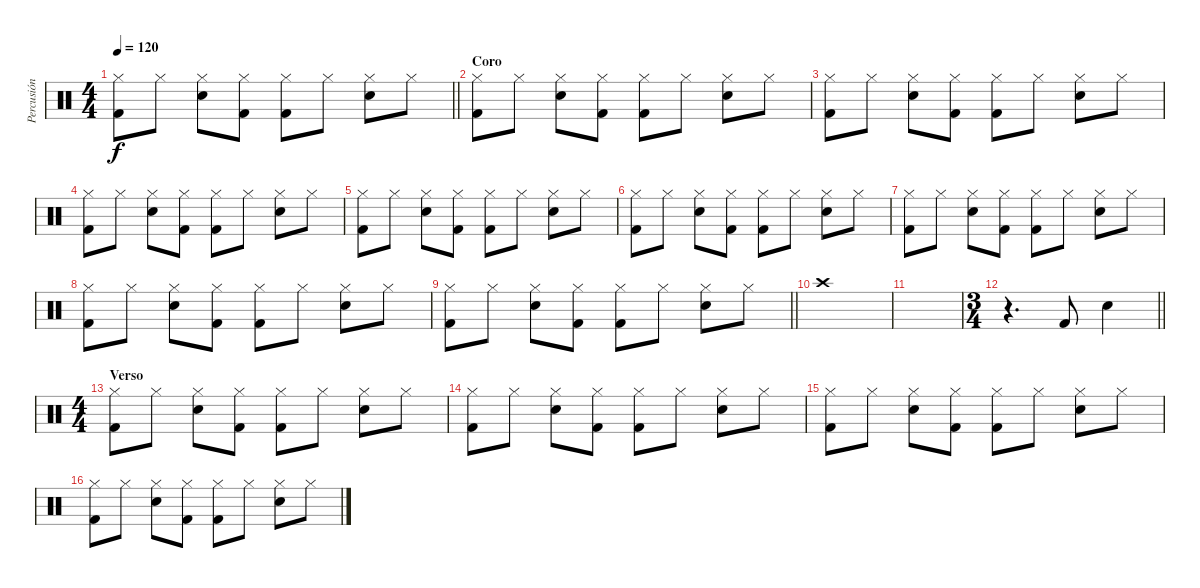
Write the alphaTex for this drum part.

\track ("Percusión" "Percusión") {instrument percussion}
\staff {score}
\articulation defaults
\ts (4 4)
\tempo 120
\clef neutral
\barLineRight lightlight
\ks c
("Hi-Hat (closed)" "Kick (hit) 2").8{dy f} "Hi-Hat (closed)".8 ("Hi-Hat (closed)" "Snare (hit) 2").8 ("Hi-Hat (closed)" "Kick (hit) 2").8 ("Hi-Hat (closed)" "Kick (hit) 2").8 "Hi-Hat (closed)".8 ("Hi-Hat (closed)" "Snare (hit) 2").8 "Hi-Hat (closed)".8 |
\section ("" "Coro")
("Hi-Hat (closed)" "Kick (hit) 2").8 "Hi-Hat (closed)".8 ("Hi-Hat (closed)" "Snare (hit) 2").8 ("Hi-Hat (closed)" "Kick (hit) 2").8 ("Hi-Hat (closed)" "Kick (hit) 2").8 "Hi-Hat (closed)".8 ("Hi-Hat (closed)" "Snare (hit) 2").8 "Hi-Hat (closed)".8 |
("Hi-Hat (closed)" "Kick (hit) 2").8 "Hi-Hat (closed)".8 ("Hi-Hat (closed)" "Snare (hit) 2").8 ("Hi-Hat (closed)" "Kick (hit) 2").8 ("Hi-Hat (closed)" "Kick (hit) 2").8 "Hi-Hat (closed)".8 ("Hi-Hat (closed)" "Snare (hit) 2").8 "Hi-Hat (closed)".8 |
("Hi-Hat (closed)" "Kick (hit) 2").8 "Hi-Hat (closed)".8 ("Hi-Hat (closed)" "Snare (hit) 2").8 ("Hi-Hat (closed)" "Kick (hit) 2").8 ("Hi-Hat (closed)" "Kick (hit) 2").8 "Hi-Hat (closed)".8 ("Hi-Hat (closed)" "Snare (hit) 2").8 "Hi-Hat (closed)".8 |
("Hi-Hat (closed)" "Kick (hit) 2").8 "Hi-Hat (closed)".8 ("Hi-Hat (closed)" "Snare (hit) 2").8 ("Hi-Hat (closed)" "Kick (hit) 2").8 ("Hi-Hat (closed)" "Kick (hit) 2").8 "Hi-Hat (closed)".8 ("Hi-Hat (closed)" "Snare (hit) 2").8 "Hi-Hat (closed)".8 |
("Hi-Hat (closed)" "Kick (hit) 2").8 "Hi-Hat (closed)".8 ("Hi-Hat (closed)" "Snare (hit) 2").8 ("Hi-Hat (closed)" "Kick (hit) 2").8 ("Hi-Hat (closed)" "Kick (hit) 2").8 "Hi-Hat (closed)".8 ("Hi-Hat (closed)" "Snare (hit) 2").8 "Hi-Hat (closed)".8 |
("Hi-Hat (closed)" "Kick (hit) 2").8 "Hi-Hat (closed)".8 ("Hi-Hat (closed)" "Snare (hit) 2").8 ("Hi-Hat (closed)" "Kick (hit) 2").8 ("Hi-Hat (closed)" "Kick (hit) 2").8 "Hi-Hat (closed)".8 ("Hi-Hat (closed)" "Snare (hit) 2").8 "Hi-Hat (closed)".8 |
("Hi-Hat (closed)" "Kick (hit) 2").8 "Hi-Hat (closed)".8 ("Hi-Hat (closed)" "Snare (hit) 2").8 ("Hi-Hat (closed)" "Kick (hit) 2").8 ("Hi-Hat (closed)" "Kick (hit) 2").8 "Hi-Hat (closed)".8 ("Hi-Hat (closed)" "Snare (hit) 2").8 "Hi-Hat (closed)".8 |
\barLineRight lightlight
("Hi-Hat (closed)" "Kick (hit) 2").8 "Hi-Hat (closed)".8 ("Hi-Hat (closed)" "Snare (hit) 2").8 ("Hi-Hat (closed)" "Kick (hit) 2").8 ("Hi-Hat (closed)" "Kick (hit) 2").8 "Hi-Hat (closed)".8 ("Hi-Hat (closed)" "Snare (hit) 2").8 "Hi-Hat (closed)".8 |
"Crash high (hit)".1 |
|
\ts (3 4)
\barLineRight lightlight
r.4{d} "Kick (hit) 2".8 "Snare (hit) 2".4 |
\ts (4 4)
\section ("" "Verso")
("Hi-Hat (closed)" "Kick (hit) 2").8 "Hi-Hat (closed)".8 ("Hi-Hat (closed)" "Snare (hit) 2").8 ("Hi-Hat (closed)" "Kick (hit) 2").8 ("Hi-Hat (closed)" "Kick (hit) 2").8 "Hi-Hat (closed)".8 ("Hi-Hat (closed)" "Snare (hit) 2").8 "Hi-Hat (closed)".8 |
("Hi-Hat (closed)" "Kick (hit) 2").8 "Hi-Hat (closed)".8 ("Hi-Hat (closed)" "Snare (hit) 2").8 ("Hi-Hat (closed)" "Kick (hit) 2").8 ("Hi-Hat (closed)" "Kick (hit) 2").8 "Hi-Hat (closed)".8 ("Hi-Hat (closed)" "Snare (hit) 2").8 "Hi-Hat (closed)".8 |
("Hi-Hat (closed)" "Kick (hit) 2").8 "Hi-Hat (closed)".8 ("Hi-Hat (closed)" "Snare (hit) 2").8 ("Hi-Hat (closed)" "Kick (hit) 2").8 ("Hi-Hat (closed)" "Kick (hit) 2").8 "Hi-Hat (closed)".8 ("Hi-Hat (closed)" "Snare (hit) 2").8 "Hi-Hat (closed)".8 |
("Hi-Hat (closed)" "Kick (hit) 2").8 "Hi-Hat (closed)".8 ("Hi-Hat (closed)" "Snare (hit) 2").8 ("Hi-Hat (closed)" "Kick (hit) 2").8 ("Hi-Hat (closed)" "Kick (hit) 2").8 "Hi-Hat (closed)".8 ("Hi-Hat (closed)" "Snare (hit) 2").8 "Hi-Hat (closed)".8
